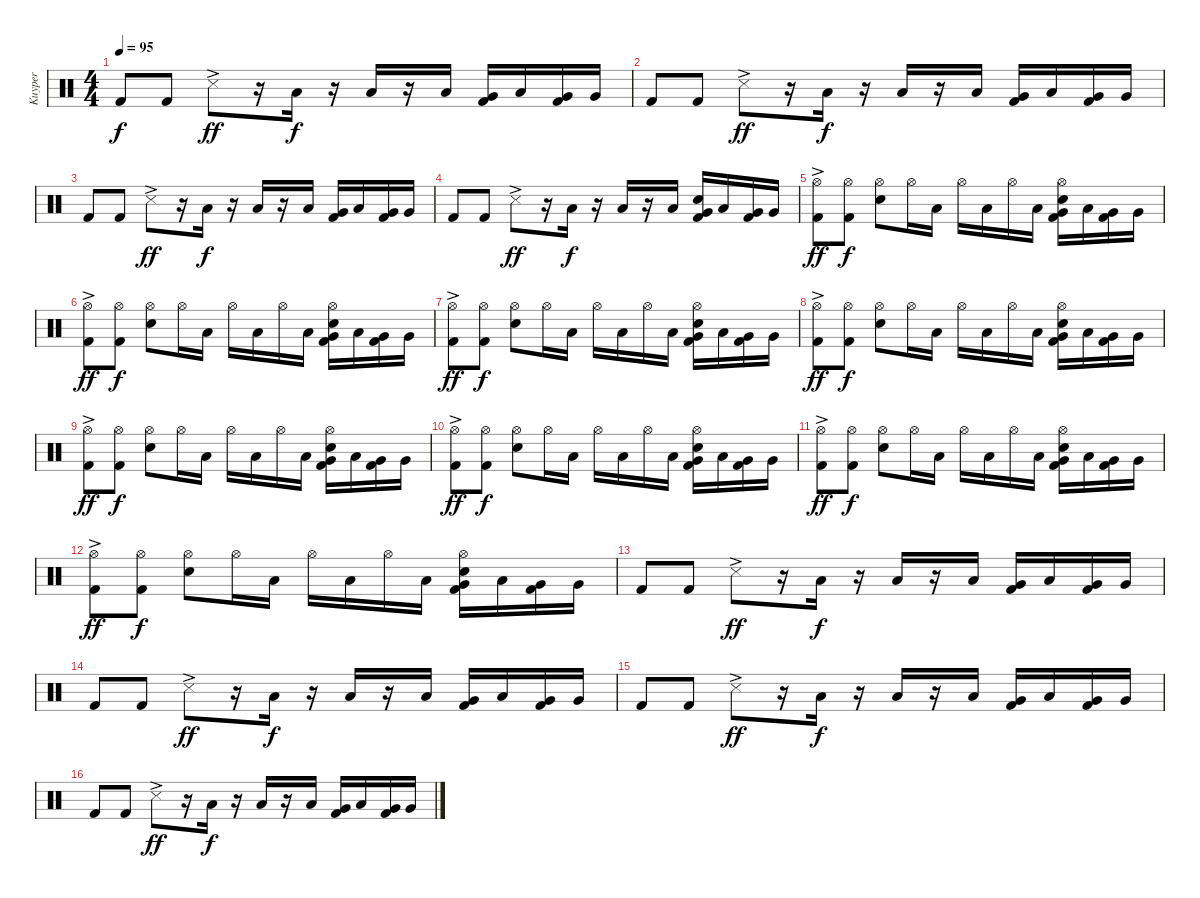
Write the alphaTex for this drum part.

\track ("Kuyper" "Kuyper") {instrument percussion}
\staff {score}
\articulation defaults
\ts (4 4)
\tempo 95
\clef neutral
\ks c "Kick (hit) 2".8{dy f} "Kick (hit) 2".8 "Snare (side stick) 3"{ac}.8{dy ff}
r.16 "Low Floor Tom (hit)".16{dy f} r.16 "Low Floor Tom (hit)".16 r.16 "Low Floor Tom (hit)".16 ("Very Low Tom (hit)" "Kick (hit) 2").16 "Low Floor Tom (hit)".16 ("Very Low Tom (hit)" "Kick (hit) 2").16 "Very Low Tom (hit)".16 |
"Kick (hit) 2".8 "Kick (hit) 2".8 "Snare (side stick) 3"{ac}.8{dy ff} r.16 "Low Floor Tom (hit)".16{dy f} r.16 "Low Floor Tom (hit)".16 r.16 "Low Floor Tom (hit)".16 ("Very Low Tom (hit)" "Kick (hit) 2").16 "Low Floor Tom (hit)".16 ("Very Low Tom (hit)" "Kick (hit) 2").16 "Very Low Tom (hit)".16 |
"Kick (hit) 2".8 "Kick (hit) 2".8 "Snare (side stick) 3"{ac}.8{dy ff} r.16 "Low Floor Tom (hit)".16{dy f} r.16 "Low Floor Tom (hit)".16 r.16 "Low Floor Tom (hit)".16 ("Very Low Tom (hit)" "Kick (hit) 2").16 "Low Floor Tom (hit)".16 ("Very Low Tom (hit)" "Kick (hit) 2").16 "Very Low Tom (hit)".16 |
"Kick (hit) 2".8 "Kick (hit) 2".8 "Snare (side stick) 3"{ac}.8{dy ff} r.16 "Low Floor Tom (hit)".16{dy f} r.16 "Low Floor Tom (hit)".16 r.16 "Low Floor Tom (hit)".16 ("Very Low Tom (hit)" "Snare (hit) 2" "Kick (hit) 2").16 "Low Floor Tom (hit)".16 ("Very Low Tom (hit)" "Kick (hit) 2").16 "Very Low Tom (hit)".16 |
("Hi-Hat (open)"{ac} "Kick (hit) 2").8{dy ff} ("Hi-Hat (open)" "Kick (hit) 2").8{dy f} ("Hi-Hat (open)" "Snare (hit) 2").8 "Hi-Hat (open)".16 "Low Floor Tom (hit)".16 "Hi-Hat (open)".16 "Low Floor Tom (hit)".16 "Hi-Hat (open)".16 "Low Floor Tom (hit)".16 ("Hi-Hat (open)" "Very Low Tom (hit)" "Snare (hit) 2" "Kick (hit) 2").16 "Low Floor Tom (hit)".16 ("Very Low Tom (hit)" "Kick (hit) 2").16 "Very Low Tom (hit)".16 |
("Hi-Hat (open)"{ac} "Kick (hit) 2").8{dy ff} ("Hi-Hat (open)" "Kick (hit) 2").8{dy f} ("Hi-Hat (open)" "Snare (hit) 2").8 "Hi-Hat (open)".16 "Low Floor Tom (hit)".16 "Hi-Hat (open)".16 "Low Floor Tom (hit)".16 "Hi-Hat (open)".16 "Low Floor Tom (hit)".16 ("Hi-Hat (open)" "Very Low Tom (hit)" "Snare (hit) 2" "Kick (hit) 2").16 "Low Floor Tom (hit)".16 ("Very Low Tom (hit)" "Kick (hit) 2").16 "Very Low Tom (hit)".16 |
("Hi-Hat (open)"{ac} "Kick (hit) 2").8{dy ff} ("Hi-Hat (open)" "Kick (hit) 2").8{dy f} ("Hi-Hat (open)" "Snare (hit) 2").8 "Hi-Hat (open)".16 "Low Floor Tom (hit)".16 "Hi-Hat (open)".16 "Low Floor Tom (hit)".16 "Hi-Hat (open)".16 "Low Floor Tom (hit)".16 ("Hi-Hat (open)" "Very Low Tom (hit)" "Snare (hit) 2" "Kick (hit) 2").16 "Low Floor Tom (hit)".16 ("Very Low Tom (hit)" "Kick (hit) 2").16 "Very Low Tom (hit)".16 |
("Hi-Hat (open)"{ac} "Kick (hit) 2").8{dy ff} ("Hi-Hat (open)" "Kick (hit) 2").8{dy f} ("Hi-Hat (open)" "Snare (hit) 2").8 "Hi-Hat (open)".16 "Low Floor Tom (hit)".16 "Hi-Hat (open)".16 "Low Floor Tom (hit)".16 "Hi-Hat (open)".16 "Low Floor Tom (hit)".16 ("Hi-Hat (open)" "Very Low Tom (hit)" "Snare (hit) 2" "Kick (hit) 2").16 "Low Floor Tom (hit)".16 ("Very Low Tom (hit)" "Kick (hit) 2").16 "Very Low Tom (hit)".16 |
("Hi-Hat (open)"{ac} "Kick (hit) 2").8{dy ff} ("Hi-Hat (open)" "Kick (hit) 2").8{dy f} ("Hi-Hat (open)" "Snare (hit) 2").8 "Hi-Hat (open)".16 "Low Floor Tom (hit)".16 "Hi-Hat (open)".16 "Low Floor Tom (hit)".16 "Hi-Hat (open)".16 "Low Floor Tom (hit)".16 ("Hi-Hat (open)" "Very Low Tom (hit)" "Snare (hit) 2" "Kick (hit) 2").16 "Low Floor Tom (hit)".16 ("Very Low Tom (hit)" "Kick (hit) 2").16 "Very Low Tom (hit)".16 |
("Hi-Hat (open)"{ac} "Kick (hit) 2").8{dy ff} ("Hi-Hat (open)" "Kick (hit) 2").8{dy f} ("Hi-Hat (open)" "Snare (hit) 2").8 "Hi-Hat (open)".16 "Low Floor Tom (hit)".16 "Hi-Hat (open)".16 "Low Floor Tom (hit)".16 "Hi-Hat (open)".16 "Low Floor Tom (hit)".16 ("Hi-Hat (open)" "Very Low Tom (hit)" "Snare (hit) 2" "Kick (hit) 2").16 "Low Floor Tom (hit)".16 ("Very Low Tom (hit)" "Kick (hit) 2").16 "Very Low Tom (hit)".16 |
("Hi-Hat (open)"{ac} "Kick (hit) 2").8{dy ff} ("Hi-Hat (open)" "Kick (hit) 2").8{dy f} ("Hi-Hat (open)" "Snare (hit) 2").8 "Hi-Hat (open)".16 "Low Floor Tom (hit)".16 "Hi-Hat (open)".16 "Low Floor Tom (hit)".16 "Hi-Hat (open)".16 "Low Floor Tom (hit)".16 ("Hi-Hat (open)" "Very Low Tom (hit)" "Snare (hit) 2" "Kick (hit) 2").16 "Low Floor Tom (hit)".16 ("Very Low Tom (hit)" "Kick (hit) 2").16 "Very Low Tom (hit)".16 |
("Hi-Hat (open)"{ac} "Kick (hit) 2").8{dy ff} ("Hi-Hat (open)" "Kick (hit) 2").8{dy f} ("Hi-Hat (open)" "Snare (hit) 2").8 "Hi-Hat (open)".16 "Low Floor Tom (hit)".16 "Hi-Hat (open)".16 "Low Floor Tom (hit)".16 "Hi-Hat (open)".16 "Low Floor Tom (hit)".16 ("Hi-Hat (open)" "Very Low Tom (hit)" "Snare (hit) 2" "Kick (hit) 2").16 "Low Floor Tom (hit)".16 ("Very Low Tom (hit)" "Kick (hit) 2").16 "Very Low Tom (hit)".16 |
"Kick (hit) 2".8 "Kick (hit) 2".8 "Snare (side stick) 3"{ac}.8{dy ff} r.16 "Low Floor Tom (hit)".16{dy f} r.16 "Low Floor Tom (hit)".16 r.16 "Low Floor Tom (hit)".16 ("Very Low Tom (hit)" "Kick (hit) 2").16 "Low Floor Tom (hit)".16 ("Very Low Tom (hit)" "Kick (hit) 2").16 "Very Low Tom (hit)".16 |
"Kick (hit) 2".8 "Kick (hit) 2".8 "Snare (side stick) 3"{ac}.8{dy ff} r.16 "Low Floor Tom (hit)".16{dy f} r.16 "Low Floor Tom (hit)".16 r.16 "Low Floor Tom (hit)".16 ("Very Low Tom (hit)" "Kick (hit) 2").16 "Low Floor Tom (hit)".16 ("Very Low Tom (hit)" "Kick (hit) 2").16 "Very Low Tom (hit)".16 |
"Kick (hit) 2".8 "Kick (hit) 2".8 "Snare (side stick) 3"{ac}.8{dy ff} r.16 "Low Floor Tom (hit)".16{dy f} r.16 "Low Floor Tom (hit)".16 r.16 "Low Floor Tom (hit)".16 ("Very Low Tom (hit)" "Kick (hit) 2").16 "Low Floor Tom (hit)".16 ("Very Low Tom (hit)" "Kick (hit) 2").16 "Very Low Tom (hit)".16 |
"Kick (hit) 2".8 "Kick (hit) 2".8 "Snare (side stick) 3"{ac}.8{dy ff} r.16 "Low Floor Tom (hit)".16{dy f} r.16 "Low Floor Tom (hit)".16 r.16 "Low Floor Tom (hit)".16 ("Very Low Tom (hit)" "Kick (hit) 2").16 "Low Floor Tom (hit)".16 ("Very Low Tom (hit)" "Kick (hit) 2").16 "Very Low Tom (hit)".16
